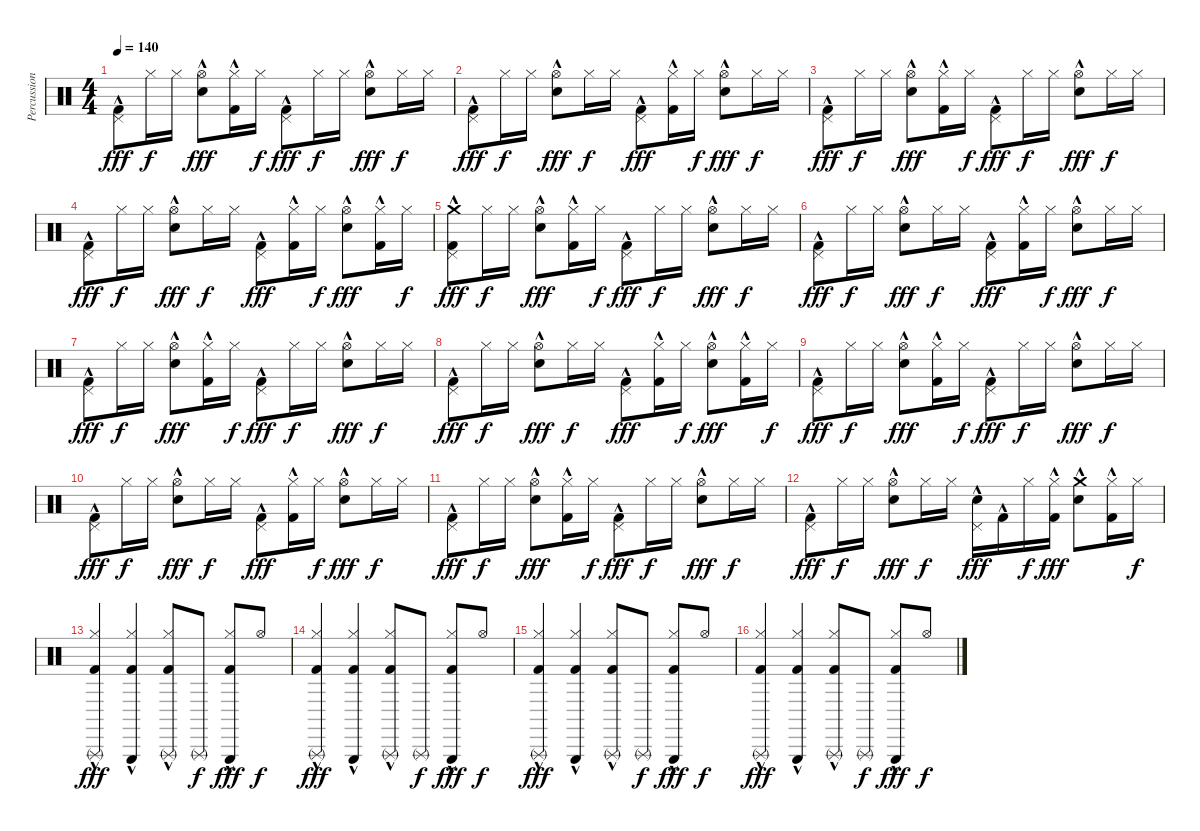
\track ("Percussion" "Percussion") {instrument percussion}
\staff {score}
\articulation defaults
\ts (4 4)
\tempo 140
\clef neutral
\ks c
("Pedal Hi-Hat (hit)" "Kick (hit) 2"{hac}).8{dy fff} "Hi-Hat (closed)".16{dy f} "Hi-Hat (closed)".16 ("Hi-Hat (open)" "Electric Snare (hit)"{hac}).8{dy fff} ("Hi-Hat (closed)" "Kick (hit) 2"{hac}).16 "Hi-Hat (closed)".16{dy f} ("Pedal Hi-Hat (hit)" "Kick (hit) 2"{hac}).8{dy fff} "Hi-Hat (closed)".16{dy f} "Hi-Hat (closed)".16 ("Hi-Hat (open)" "Electric Snare (hit)"{hac}).8{dy fff} "Hi-Hat (closed)".16{dy f} "Hi-Hat (closed)".16 |
("Pedal Hi-Hat (hit)" "Kick (hit) 2"{hac}).8{dy fff} "Hi-Hat (closed)".16{dy f} "Hi-Hat (closed)".16 ("Hi-Hat (open)" "Electric Snare (hit)"{hac}).8{dy fff} "Hi-Hat (closed)".16{dy f} "Hi-Hat (closed)".16 ("Pedal Hi-Hat (hit)" "Kick (hit) 2"{hac}).8{dy fff} ("Hi-Hat (closed)" "Kick (hit) 2"{hac}).16 "Hi-Hat (closed)".16{dy f} ("Hi-Hat (open)" "Electric Snare (hit)"{hac}).8{dy fff} "Hi-Hat (closed)".16{dy f} "Hi-Hat (closed)".16 |
("Pedal Hi-Hat (hit)" "Kick (hit) 2"{hac}).8{dy fff} "Hi-Hat (closed)".16{dy f} "Hi-Hat (closed)".16 ("Hi-Hat (open)" "Electric Snare (hit)"{hac}).8{dy fff} ("Hi-Hat (closed)" "Kick (hit) 2"{hac}).16 "Hi-Hat (closed)".16{dy f} ("Pedal Hi-Hat (hit)" "Kick (hit) 2"{hac}).8{dy fff} "Hi-Hat (closed)".16{dy f} "Hi-Hat (closed)".16 ("Hi-Hat (open)" "Electric Snare (hit)"{hac}).8{dy fff} "Hi-Hat (closed)".16{dy f} "Hi-Hat (closed)".16 |
("Pedal Hi-Hat (hit)" "Kick (hit) 2"{hac}).8{dy fff} "Hi-Hat (closed)".16{dy f} "Hi-Hat (closed)".16 ("Hi-Hat (open)" "Electric Snare (hit)"{hac}).8{dy fff} "Hi-Hat (closed)".16{dy f} "Hi-Hat (closed)".16 ("Pedal Hi-Hat (hit)" "Kick (hit) 2"{hac}).8{dy fff} ("Hi-Hat (closed)" "Kick (hit) 2"{hac}).16 "Hi-Hat (closed)".16{dy f} ("Hi-Hat (open)" "Electric Snare (hit)"{hac}).8{dy fff} ("Hi-Hat (closed)" "Kick (hit) 2"{hac}).16 "Hi-Hat (closed)".16{dy f} |
("Crash medium (hit)"{hac} "Pedal Hi-Hat (hit)" "Kick (hit) 2"{hac}).8{dy fff} "Hi-Hat (closed)".16{dy f} "Hi-Hat (closed)".16 ("Hi-Hat (open)" "Electric Snare (hit)"{hac}).8{dy fff} ("Hi-Hat (closed)" "Kick (hit) 2"{hac}).16 "Hi-Hat (closed)".16{dy f} ("Pedal Hi-Hat (hit)" "Kick (hit) 2"{hac}).8{dy fff} "Hi-Hat (closed)".16{dy f} "Hi-Hat (closed)".16 ("Hi-Hat (open)" "Electric Snare (hit)"{hac}).8{dy fff} "Hi-Hat (closed)".16{dy f} "Hi-Hat (closed)".16 |
("Pedal Hi-Hat (hit)" "Kick (hit) 2"{hac}).8{dy fff} "Hi-Hat (closed)".16{dy f} "Hi-Hat (closed)".16 ("Hi-Hat (open)" "Electric Snare (hit)"{hac}).8{dy fff} "Hi-Hat (closed)".16{dy f} "Hi-Hat (closed)".16 ("Pedal Hi-Hat (hit)" "Kick (hit) 2"{hac}).8{dy fff} ("Hi-Hat (closed)" "Kick (hit) 2"{hac}).16 "Hi-Hat (closed)".16{dy f} ("Hi-Hat (open)" "Electric Snare (hit)"{hac}).8{dy fff} "Hi-Hat (closed)".16{dy f} "Hi-Hat (closed)".16 |
("Pedal Hi-Hat (hit)" "Kick (hit) 2"{hac}).8{dy fff} "Hi-Hat (closed)".16{dy f} "Hi-Hat (closed)".16 ("Hi-Hat (open)" "Electric Snare (hit)"{hac}).8{dy fff} ("Hi-Hat (closed)" "Kick (hit) 2"{hac}).16 "Hi-Hat (closed)".16{dy f} ("Pedal Hi-Hat (hit)" "Kick (hit) 2"{hac}).8{dy fff} "Hi-Hat (closed)".16{dy f} "Hi-Hat (closed)".16 ("Hi-Hat (open)" "Electric Snare (hit)"{hac}).8{dy fff} "Hi-Hat (closed)".16{dy f} "Hi-Hat (closed)".16 |
("Pedal Hi-Hat (hit)" "Kick (hit) 2"{hac}).8{dy fff} "Hi-Hat (closed)".16{dy f} "Hi-Hat (closed)".16 ("Hi-Hat (open)" "Electric Snare (hit)"{hac}).8{dy fff} "Hi-Hat (closed)".16{dy f} "Hi-Hat (closed)".16 ("Pedal Hi-Hat (hit)" "Kick (hit) 2"{hac}).8{dy fff} ("Hi-Hat (closed)" "Kick (hit) 2"{hac}).16 "Hi-Hat (closed)".16{dy f} ("Hi-Hat (open)" "Electric Snare (hit)"{hac}).8{dy fff} ("Hi-Hat (closed)" "Kick (hit) 2"{hac}).16 "Hi-Hat (closed)".16{dy f} |
("Pedal Hi-Hat (hit)" "Kick (hit) 2"{hac}).8{dy fff} "Hi-Hat (closed)".16{dy f} "Hi-Hat (closed)".16 ("Hi-Hat (open)" "Electric Snare (hit)"{hac}).8{dy fff} ("Hi-Hat (closed)" "Kick (hit) 2"{hac}).16 "Hi-Hat (closed)".16{dy f} ("Pedal Hi-Hat (hit)" "Kick (hit) 2"{hac}).8{dy fff} "Hi-Hat (closed)".16{dy f} "Hi-Hat (closed)".16 ("Hi-Hat (open)" "Electric Snare (hit)"{hac}).8{dy fff} "Hi-Hat (closed)".16{dy f} "Hi-Hat (closed)".16 |
("Pedal Hi-Hat (hit)" "Kick (hit) 2"{hac}).8{dy fff} "Hi-Hat (closed)".16{dy f} "Hi-Hat (closed)".16 ("Hi-Hat (open)" "Electric Snare (hit)"{hac}).8{dy fff} "Hi-Hat (closed)".16{dy f} "Hi-Hat (closed)".16 ("Pedal Hi-Hat (hit)" "Kick (hit) 2"{hac}).8{dy fff} ("Hi-Hat (closed)" "Kick (hit) 2"{hac}).16 "Hi-Hat (closed)".16{dy f} ("Hi-Hat (open)" "Electric Snare (hit)"{hac}).8{dy fff} "Hi-Hat (closed)".16{dy f} "Hi-Hat (closed)".16 |
("Pedal Hi-Hat (hit)" "Kick (hit) 2"{hac}).8{dy fff} "Hi-Hat (closed)".16{dy f} "Hi-Hat (closed)".16 ("Hi-Hat (open)" "Electric Snare (hit)"{hac}).8{dy fff} ("Hi-Hat (closed)" "Kick (hit) 2"{hac}).16 "Hi-Hat (closed)".16{dy f} ("Pedal Hi-Hat (hit)" "Kick (hit) 2"{hac}).8{dy fff} "Hi-Hat (closed)".16{dy f} "Hi-Hat (closed)".16 ("Hi-Hat (open)" "Electric Snare (hit)"{hac}).8{dy fff} "Hi-Hat (closed)".16{dy f} "Hi-Hat (closed)".16 |
("Pedal Hi-Hat (hit)" "Kick (hit) 2"{hac}).8{dy fff} "Hi-Hat (closed)".16{dy f} "Hi-Hat (closed)".16 ("Hi-Hat (open)" "Electric Snare (hit)"{hac}).8{dy fff} "Hi-Hat (closed)".16{dy f} "Hi-Hat (closed)".16 ("Pedal Hi-Hat (hit)" "Electric Snare (hit)"{hac}).16{dy fff} "Kick (hit) 2"{hac}.16 "Hi-Hat (closed)".16{dy f} ("Hi-Hat (closed)" "Kick (hit) 2"{hac}).16{dy fff} ("Crash medium (hit)"{hac} "Electric Snare (hit)"{hac}).8 ("Hi-Hat (closed)"{hac} "Kick (hit) 2"{hac}).16 "Hi-Hat (closed)".16{dy f} |
("Triangle (rnute)" "Hi-Hat (closed)" "Kick (hit) 2"{hac}).4{dy fff} ("Triangle (hit)" "Hi-Hat (closed)" "Kick (hit) 2"{hac}).4 ("Triangle (rnute)" "Hi-Hat (closed)" "Kick (hit) 2"{hac}).8 "Triangle (rnute)".8{dy f} ("Triangle (hit)" "Hi-Hat (closed)" "Kick (hit) 2"{hac}).8{dy fff} "Hi-Hat (open)".8{dy f} |
("Triangle (rnute)" "Hi-Hat (closed)" "Kick (hit) 2"{hac}).4{dy fff} ("Triangle (hit)" "Hi-Hat (closed)" "Kick (hit) 2"{hac}).4 ("Triangle (rnute)" "Hi-Hat (closed)" "Kick (hit) 2"{hac}).8 "Triangle (rnute)".8{dy f} ("Triangle (hit)" "Hi-Hat (closed)" "Kick (hit) 2"{hac}).8{dy fff} "Hi-Hat (open)".8{dy f} |
("Triangle (rnute)" "Hi-Hat (closed)" "Kick (hit) 2"{hac}).4{dy fff} ("Triangle (hit)" "Hi-Hat (closed)" "Kick (hit) 2"{hac}).4 ("Triangle (rnute)" "Hi-Hat (closed)" "Kick (hit) 2"{hac}).8 "Triangle (rnute)".8{dy f} ("Triangle (hit)" "Hi-Hat (closed)" "Kick (hit) 2"{hac}).8{dy fff} "Hi-Hat (open)".8{dy f} |
("Triangle (rnute)" "Hi-Hat (closed)" "Kick (hit) 2"{hac}).4{dy fff} ("Triangle (hit)" "Hi-Hat (closed)" "Kick (hit) 2"{hac}).4 ("Triangle (rnute)" "Hi-Hat (closed)" "Kick (hit) 2"{hac}).8 "Triangle (rnute)".8{dy f} ("Triangle (hit)" "Hi-Hat (closed)" "Kick (hit) 2"{hac}).8{dy fff} "Hi-Hat (open)".8{dy f}
